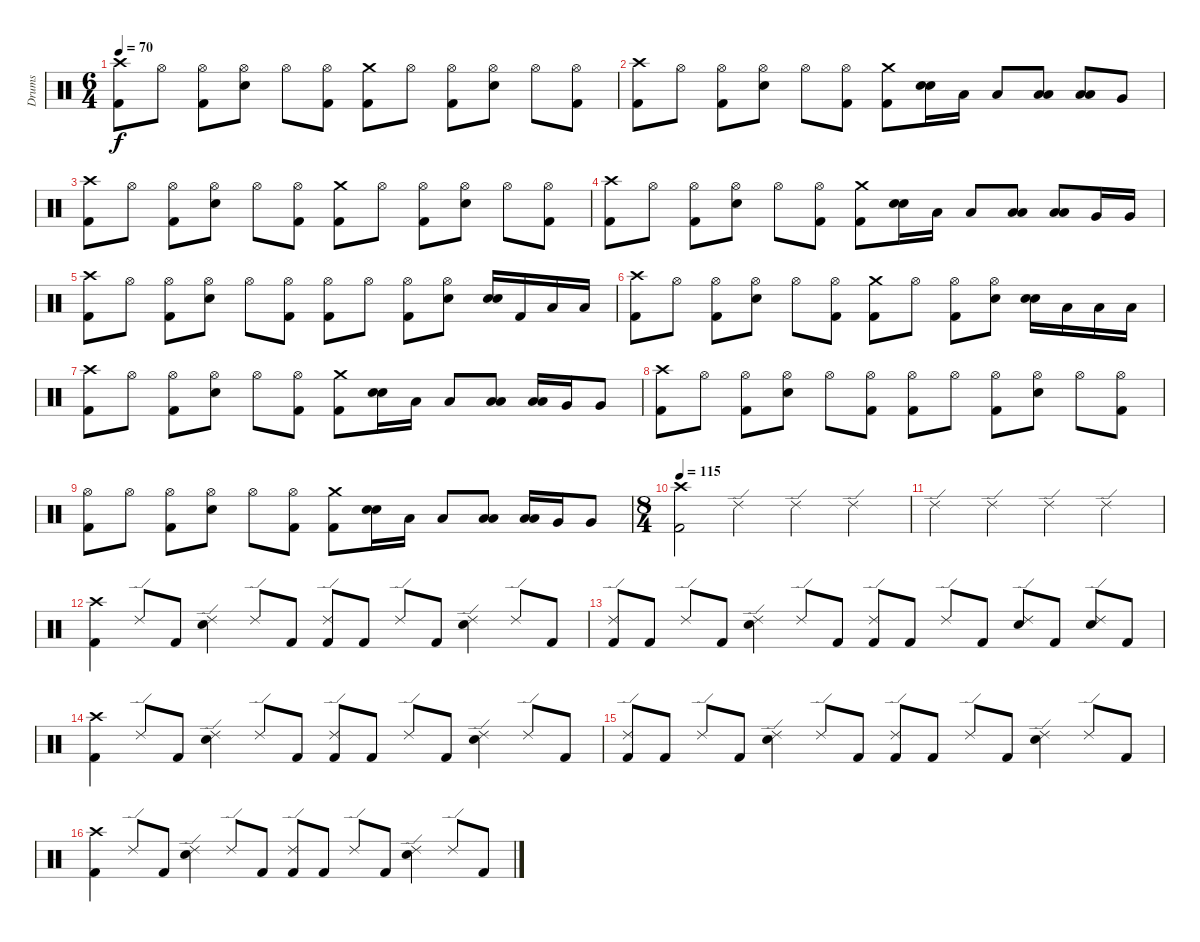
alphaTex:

\track ("Drums" "Drums") {instrument percussion}
\staff {score}
\articulation defaults
\ts (6 4)
\tempo 70
\clef neutral
\ks c
("Crash high (hit)" "Kick (hit) 2").8{dy f} "Hi-Hat (open)".8 ("Hi-Hat (open)" "Kick (hit) 2").8 ("Hi-Hat (open)" "Electric Snare (hit)").8 "Hi-Hat (open)".8 ("Hi-Hat (open)" "Kick (hit) 2").8 ("Crash medium (hit)" "Kick (hit) 2").8 "Hi-Hat (open)".8 ("Hi-Hat (open)" "Kick (hit) 2").8 ("Hi-Hat (open)" "Electric Snare (hit)").8 "Hi-Hat (open)".8 ("Hi-Hat (open)" "Kick (hit) 2").8 |
("Crash high (hit)" "Kick (hit) 2").8 "Hi-Hat (open)".8 ("Hi-Hat (open)" "Kick (hit) 2").8 ("Hi-Hat (open)" "Electric Snare (hit)").8 "Hi-Hat (open)".8 ("Hi-Hat (open)" "Kick (hit) 2").8 ("Crash medium (hit)" "Kick (hit) 2").8 ("Electric Snare (hit)" "Electric Snare (hit)").16{bu 60} "Low Tom (hit)".16 "Low Tom (hit)".8 ("Low Tom (hit)" "Low Tom (hit)").8{bu 60} ("Low Tom (hit)" "Low Tom (hit)").8{bu 60} "Very Low Tom (hit)".8 |
("Crash high (hit)" "Kick (hit) 2").8 "Hi-Hat (open)".8 ("Hi-Hat (open)" "Kick (hit) 2").8 ("Hi-Hat (open)" "Electric Snare (hit)").8 "Hi-Hat (open)".8 ("Hi-Hat (open)" "Kick (hit) 2").8 ("Crash medium (hit)" "Kick (hit) 2").8 "Hi-Hat (open)".8 ("Hi-Hat (open)" "Kick (hit) 2").8 ("Hi-Hat (open)" "Electric Snare (hit)").8 "Hi-Hat (open)".8 ("Hi-Hat (open)" "Kick (hit) 2").8 |
("Crash high (hit)" "Kick (hit) 2").8 "Hi-Hat (open)".8 ("Hi-Hat (open)" "Kick (hit) 2").8 ("Hi-Hat (open)" "Electric Snare (hit)").8 "Hi-Hat (open)".8 ("Hi-Hat (open)" "Kick (hit) 2").8 ("Crash medium (hit)" "Kick (hit) 2").8 ("Electric Snare (hit)" "Electric Snare (hit)").16{bu 60} "Low Tom (hit)".16 "Low Tom (hit)".8 ("Low Tom (hit)" "Low Tom (hit)").8{bu 60} ("Low Tom (hit)" "Low Tom (hit)").8{bu 60} "Very Low Tom (hit)".16 "Very Low Tom (hit)".16 |
("Crash high (hit)" "Kick (hit) 2").8 "Hi-Hat (open)".8 ("Hi-Hat (open)" "Kick (hit) 2").8 ("Hi-Hat (open)" "Electric Snare (hit)").8 "Hi-Hat (open)".8 ("Hi-Hat (open)" "Kick (hit) 2").8 ("Hi-Hat (open)" "Kick (hit) 2").8 "Hi-Hat (open)".8 ("Hi-Hat (open)" "Kick (hit) 2").8 ("Hi-Hat (open)" "Electric Snare (hit)").8 ("Electric Snare (hit)" "Electric Snare (hit)").16{bu 60} "Kick (hit) 2".16 "Low Tom (hit)".16 "Low Tom (hit)".16 |
("Crash high (hit)" "Kick (hit) 2").8 "Hi-Hat (open)".8 ("Hi-Hat (open)" "Kick (hit) 2").8 ("Hi-Hat (open)" "Electric Snare (hit)").8 "Hi-Hat (open)".8 ("Hi-Hat (open)" "Kick (hit) 2").8 ("Crash medium (hit)" "Kick (hit) 2").8 "Hi-Hat (open)".8 ("Hi-Hat (open)" "Kick (hit) 2").8 ("Hi-Hat (open)" "Electric Snare (hit)").8 ("Electric Snare (hit)" "Electric Snare (hit)").16{bu 60} "Low Tom (hit)".16 "Low Tom (hit)".16 "Low Tom (hit)".16 |
("Crash high (hit)" "Kick (hit) 2").8 "Hi-Hat (open)".8 ("Hi-Hat (open)" "Kick (hit) 2").8 ("Hi-Hat (open)" "Electric Snare (hit)").8 "Hi-Hat (open)".8 ("Hi-Hat (open)" "Kick (hit) 2").8 ("Crash medium (hit)" "Kick (hit) 2").8 ("Electric Snare (hit)" "Electric Snare (hit)").16{bu 60} "Low Tom (hit)".16 "Low Tom (hit)".8 ("Low Tom (hit)" "Low Tom (hit)").8{bu 60} ("Low Tom (hit)" "Low Tom (hit)").16{bu 60} "Very Low Tom (hit)".16 "Very Low Tom (hit)".8 |
("Crash high (hit)" "Kick (hit) 2").8 "Hi-Hat (open)".8 ("Hi-Hat (open)" "Kick (hit) 2").8 ("Hi-Hat (open)" "Electric Snare (hit)").8 "Hi-Hat (open)".8 ("Hi-Hat (open)" "Kick (hit) 2").8 ("Hi-Hat (open)" "Kick (hit) 2").8 "Hi-Hat (open)".8 ("Hi-Hat (open)" "Kick (hit) 2").8 ("Hi-Hat (open)" "Electric Snare (hit)").8 "Hi-Hat (open)".8 ("Hi-Hat (open)" "Kick (hit) 2").8 |
("Hi-Hat (open)" "Kick (hit) 2").8 "Hi-Hat (open)".8 ("Hi-Hat (open)" "Kick (hit) 2").8 ("Hi-Hat (open)" "Electric Snare (hit)").8 "Hi-Hat (open)".8 ("Hi-Hat (open)" "Kick (hit) 2").8 ("Crash medium (hit)" "Kick (hit) 2").8 ("Electric Snare (hit)" "Electric Snare (hit)").16{bu 60} "Low Tom (hit)".16 "Low Tom (hit)".8 ("Low Tom (hit)" "Low Tom (hit)").8{bu 60} ("Low Tom (hit)" "Low Tom (hit)").16{bu 60} "Very Low Tom (hit)".16 "Very Low Tom (hit)".8 |
\ts (8 4)
\tempo 115
("Crash high (hit)" "Kick (hit) 2").2 "Ride (edge) 2".2 "Ride (edge) 2".2 "Ride (edge) 2".2 |
"Ride (edge) 2".2 "Ride (edge) 2".2 "Ride (edge) 2".2 "Ride (edge) 2".2 |
("Crash high (hit)" "Kick (hit) 2").4 "Ride (edge) 2".8 "Kick (hit) 2".8 ("Ride (edge) 2" "Electric Snare (hit)").4 "Ride (edge) 2".8 "Kick (hit) 2".8 ("Ride (edge) 2" "Kick (hit) 2").8 "Kick (hit) 2".8 "Ride (edge) 2".8 "Kick (hit) 2".8 ("Ride (edge) 2" "Electric Snare (hit)").4 "Ride (edge) 2".8 "Kick (hit) 2".8 |
("Ride (edge) 2" "Kick (hit) 2").8 "Kick (hit) 2".8 "Ride (edge) 2".8 "Kick (hit) 2".8 ("Ride (edge) 2" "Electric Snare (hit)").4 "Ride (edge) 2".8 "Kick (hit) 2".8 ("Ride (edge) 2" "Kick (hit) 2").8 "Kick (hit) 2".8 "Ride (edge) 2".8 "Kick (hit) 2".8 ("Ride (edge) 2" "Electric Snare (hit)").8 "Kick (hit) 2".8 ("Ride (edge) 2" "Electric Snare (hit)").8 "Kick (hit) 2".8 |
("Crash high (hit)" "Kick (hit) 2").4 "Ride (edge) 2".8 "Kick (hit) 2".8 ("Ride (edge) 2" "Electric Snare (hit)").4 "Ride (edge) 2".8 "Kick (hit) 2".8 ("Ride (edge) 2" "Kick (hit) 2").8 "Kick (hit) 2".8 "Ride (edge) 2".8 "Kick (hit) 2".8 ("Ride (edge) 2" "Electric Snare (hit)").4 "Ride (edge) 2".8 "Kick (hit) 2".8 |
("Ride (edge) 2" "Kick (hit) 2").8 "Kick (hit) 2".8 "Ride (edge) 2".8 "Kick (hit) 2".8 ("Ride (edge) 2" "Electric Snare (hit)").4 "Ride (edge) 2".8 "Kick (hit) 2".8 ("Ride (edge) 2" "Kick (hit) 2").8 "Kick (hit) 2".8 "Ride (edge) 2".8 "Kick (hit) 2".8 ("Ride (edge) 2" "Electric Snare (hit)").4 "Ride (edge) 2".8 "Kick (hit) 2".8 |
("Crash high (hit)" "Kick (hit) 2").4 "Ride (edge) 2".8 "Kick (hit) 2".8 ("Ride (edge) 2" "Electric Snare (hit)").4 "Ride (edge) 2".8 "Kick (hit) 2".8 ("Ride (edge) 2" "Kick (hit) 2").8 "Kick (hit) 2".8 "Ride (edge) 2".8 "Kick (hit) 2".8 ("Ride (edge) 2" "Electric Snare (hit)").4 "Ride (edge) 2".8 "Kick (hit) 2".8
